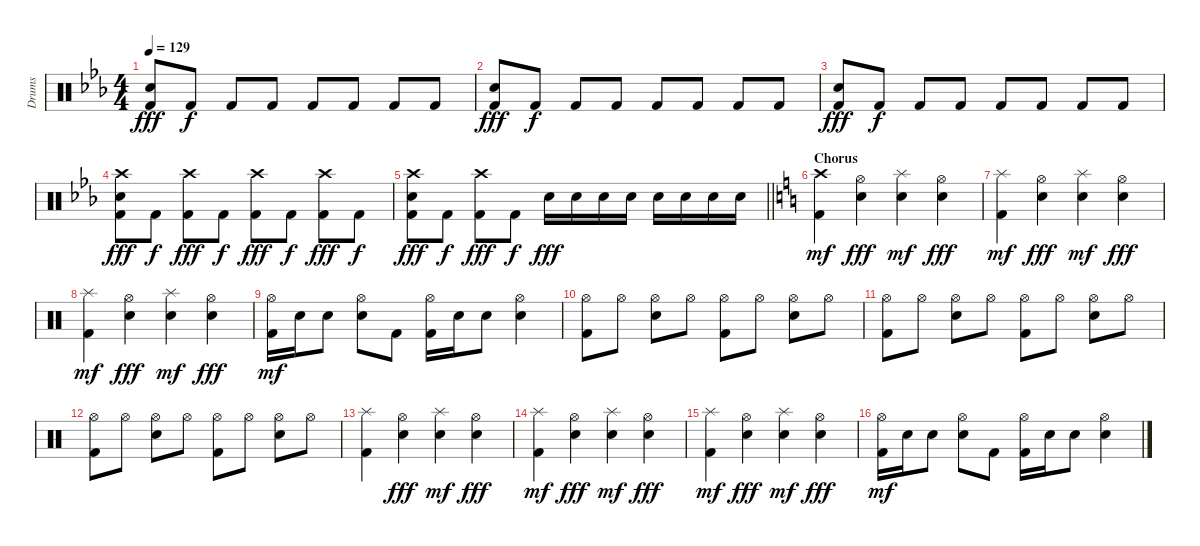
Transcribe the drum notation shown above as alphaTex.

\track ("Drums" "Drums") {instrument percussion}
\staff {score}
\articulation defaults
\ts (4 4)
\tempo 129
\clef neutral
\ks eb
("Snare (hit) 2" "Kick (hit) 2").8{dy fff} "Kick (hit) 2".8{dy f} "Kick (hit) 2".8 "Kick (hit) 2".8 "Kick (hit) 2".8 "Kick (hit) 2".8 "Kick (hit) 2".8 "Kick (hit) 2".8 |
("Snare (hit) 2" "Kick (hit) 2").8{dy fff} "Kick (hit) 2".8{dy f} "Kick (hit) 2".8 "Kick (hit) 2".8 "Kick (hit) 2".8 "Kick (hit) 2".8 "Kick (hit) 2".8 "Kick (hit) 2".8 |
("Snare (hit) 2" "Kick (hit) 2").8{dy fff} "Kick (hit) 2".8{dy f} "Kick (hit) 2".8 "Kick (hit) 2".8 "Kick (hit) 2".8 "Kick (hit) 2".8 "Kick (hit) 2".8 "Kick (hit) 2".8 |
("Crash high (hit)" "Snare (hit) 2" "Kick (hit) 2").8{dy fff} "Kick (hit) 2".8{dy f} ("Crash high (hit)" "Kick (hit) 2").8{dy fff} "Kick (hit) 2".8{dy f} ("Crash high (hit)" "Kick (hit) 2").8{dy fff} "Kick (hit) 2".8{dy f} ("Crash high (hit)" "Kick (hit) 2").8{dy fff} "Kick (hit) 2".8{dy f} |
\barLineRight lightlight
("Crash high (hit)" "Snare (hit) 2" "Kick (hit) 2").8{dy fff} "Kick (hit) 2".8{dy f} ("Crash high (hit)" "Kick (hit) 2").8{dy fff} "Kick (hit) 2".8{dy f} "Electric Snare (hit)".16{dy fff} "Electric Snare (hit)".16 "Electric Snare (hit)".16 "Electric Snare (hit)".16 "Electric Snare (hit)".16 "Electric Snare (hit)".16 "Electric Snare (hit)".16 "Electric Snare (hit)".16 |
\section ("" "Chorus")
\ks c
("Crash high (hit)" "Kick (hit) 2").4{dy mf} ("Hi-Hat (open)" "Electric Snare (hit)").4{dy fff} ("Splash (hit)" "Electric Snare (hit)").4{dy mf} ("Hi-Hat (open)" "Electric Snare (hit)").4{dy fff} |
("Splash (hit)" "Kick (hit) 2").4{dy mf} ("Hi-Hat (open)" "Electric Snare (hit)").4{dy fff} ("Splash (hit)" "Electric Snare (hit)").4{dy mf} ("Hi-Hat (open)" "Electric Snare (hit)").4{dy fff} |
("Splash (hit)" "Kick (hit) 2").4{dy mf} ("Hi-Hat (open)" "Electric Snare (hit)").4{dy fff} ("Splash (hit)" "Electric Snare (hit)").4{dy mf} ("Hi-Hat (open)" "Electric Snare (hit)").4{dy fff} |
("Hi-Hat (open)" "Kick (hit) 2").16{dy mf} "Electric Snare (hit)".16 "Electric Snare (hit)".8 ("Hi-Hat (open)" "Electric Snare (hit)").8 "Kick (hit) 2".8 ("Hi-Hat (open)" "Kick (hit) 2").16 "Electric Snare (hit)".16 "Electric Snare (hit)".8 ("Hi-Hat (open)" "Electric Snare (hit)").4 |
("Hi-Hat (open)" "Kick (hit) 2").8 "Hi-Hat (open)".8 ("Hi-Hat (open)" "Electric Snare (hit)").8 "Hi-Hat (open)".8 ("Hi-Hat (open)" "Kick (hit) 2").8 "Hi-Hat (open)".8 ("Hi-Hat (open)" "Electric Snare (hit)").8 "Hi-Hat (open)".8 |
("Hi-Hat (open)" "Kick (hit) 2").8 "Hi-Hat (open)".8 ("Hi-Hat (open)" "Electric Snare (hit)").8 "Hi-Hat (open)".8 ("Hi-Hat (open)" "Kick (hit) 2").8 "Hi-Hat (open)".8 ("Hi-Hat (open)" "Electric Snare (hit)").8 "Hi-Hat (open)".8 |
("Hi-Hat (open)" "Kick (hit) 2").8 "Hi-Hat (open)".8 ("Hi-Hat (open)" "Electric Snare (hit)").8 "Hi-Hat (open)".8 ("Hi-Hat (open)" "Kick (hit) 2").8 "Hi-Hat (open)".8 ("Hi-Hat (open)" "Electric Snare (hit)").8 "Hi-Hat (open)".8 |
("Splash (hit)" "Kick (hit) 2").4 ("Hi-Hat (open)" "Electric Snare (hit)").4{dy fff} ("Splash (hit)" "Electric Snare (hit)").4{dy mf} ("Hi-Hat (open)" "Electric Snare (hit)").4{dy fff} |
("Splash (hit)" "Kick (hit) 2").4{dy mf} ("Hi-Hat (open)" "Electric Snare (hit)").4{dy fff} ("Splash (hit)" "Electric Snare (hit)").4{dy mf} ("Hi-Hat (open)" "Electric Snare (hit)").4{dy fff} |
("Splash (hit)" "Kick (hit) 2").4{dy mf} ("Hi-Hat (open)" "Electric Snare (hit)").4{dy fff} ("Splash (hit)" "Electric Snare (hit)").4{dy mf} ("Hi-Hat (open)" "Electric Snare (hit)").4{dy fff} |
("Hi-Hat (open)" "Kick (hit) 2").16{dy mf} "Electric Snare (hit)".16 "Electric Snare (hit)".8 ("Hi-Hat (open)" "Electric Snare (hit)").8 "Kick (hit) 2".8 ("Hi-Hat (open)" "Kick (hit) 2").16 "Electric Snare (hit)".16 "Electric Snare (hit)".8 ("Hi-Hat (open)" "Electric Snare (hit)").4
